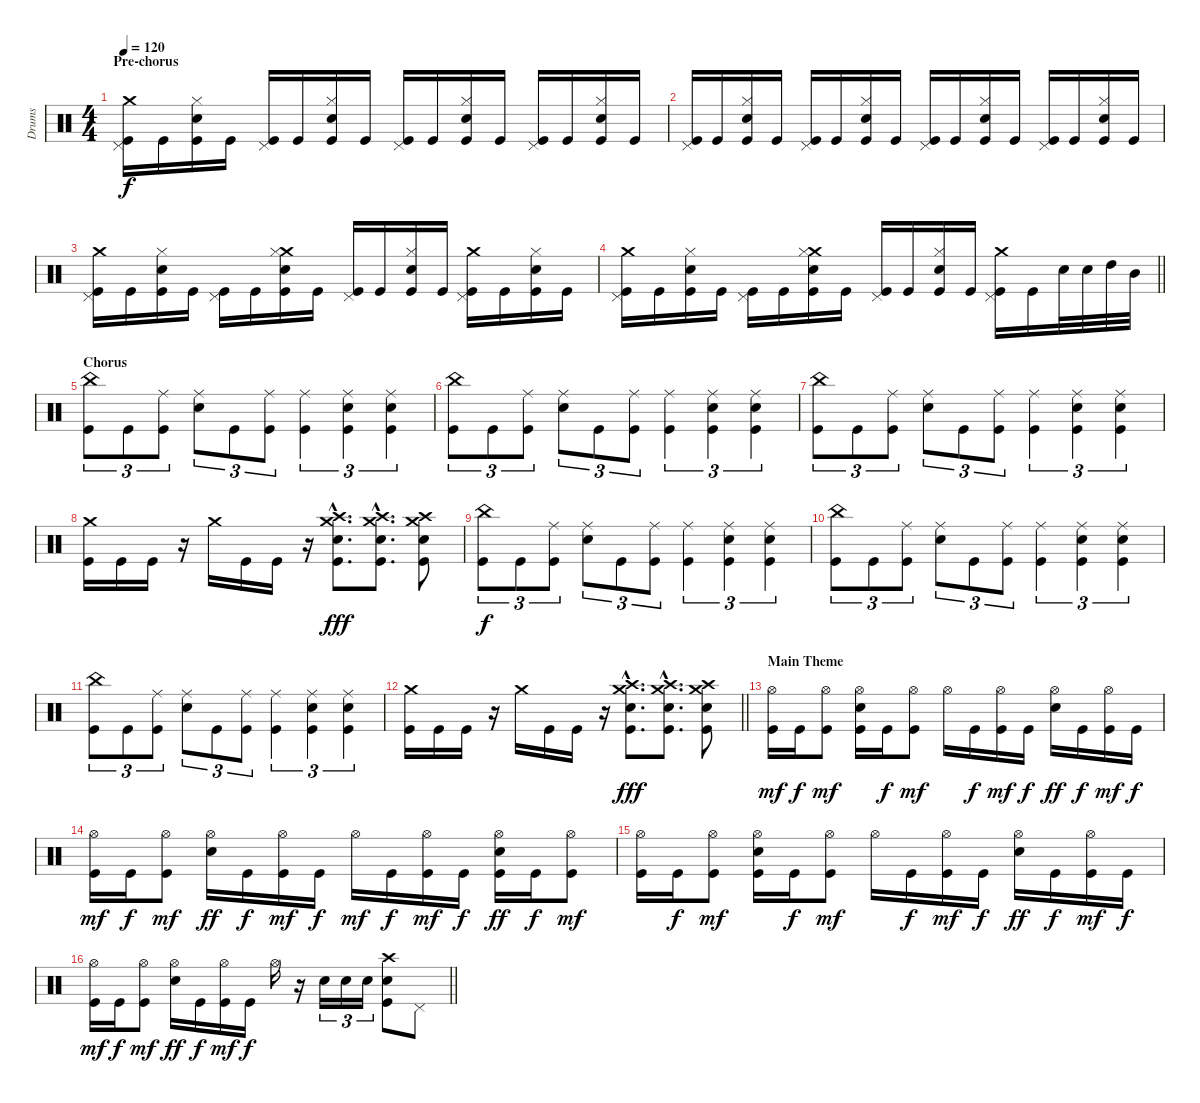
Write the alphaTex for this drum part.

\track ("Drums" "Drums") {instrument percussion}
\staff {score}
\articulation defaults
\ts (4 4)
\section ("" "Pre-chorus")
\tempo 120
\clef neutral
\ks c
("Crash medium (hit)" "Pedal Hi-Hat (hit)" "Kick (hit)").16{dy f} "Kick (hit)".16 ("Hi-Hat (closed)" "Electric Snare (hit)" "Kick (hit)").16 "Kick (hit)".16 ("Pedal Hi-Hat (hit)" "Kick (hit)").16 "Kick (hit)".16 ("Hi-Hat (closed)" "Electric Snare (hit)" "Kick (hit)").16 "Kick (hit)".16 ("Pedal Hi-Hat (hit)" "Kick (hit)").16 "Kick (hit)".16 ("Hi-Hat (closed)" "Electric Snare (hit)" "Kick (hit)").16 "Kick (hit)".16 ("Pedal Hi-Hat (hit)" "Kick (hit)").16 "Kick (hit)".16 ("Hi-Hat (closed)" "Electric Snare (hit)" "Kick (hit)").16 "Kick (hit)".16 |
("Pedal Hi-Hat (hit)" "Kick (hit)").16 "Kick (hit)".16 ("Hi-Hat (closed)" "Electric Snare (hit)" "Kick (hit)").16 "Kick (hit)".16 ("Pedal Hi-Hat (hit)" "Kick (hit)").16 "Kick (hit)".16 ("Hi-Hat (closed)" "Electric Snare (hit)" "Kick (hit)").16 "Kick (hit)".16 ("Pedal Hi-Hat (hit)" "Kick (hit)").16 "Kick (hit)".16 ("Hi-Hat (closed)" "Electric Snare (hit)" "Kick (hit)").16 "Kick (hit)".16 ("Pedal Hi-Hat (hit)" "Kick (hit)").16 "Kick (hit)".16 ("Hi-Hat (closed)" "Electric Snare (hit)" "Kick (hit)").16 "Kick (hit)".16 |
("Crash medium (hit)" "Pedal Hi-Hat (hit)" "Kick (hit)").16 "Kick (hit)".16 ("Hi-Hat (closed)" "Electric Snare (hit)" "Kick (hit)").16 "Kick (hit)".16 ("Pedal Hi-Hat (hit)" "Kick (hit)").16 "Kick (hit)".16 ("Crash medium (hit)" "Hi-Hat (closed)" "Electric Snare (hit)" "Kick (hit)").16 "Kick (hit)".16 ("Pedal Hi-Hat (hit)" "Kick (hit)").16 "Kick (hit)".16 ("Hi-Hat (closed)" "Electric Snare (hit)" "Kick (hit)").16 "Kick (hit)".16 ("Crash medium (hit)" "Pedal Hi-Hat (hit)" "Kick (hit)").16 "Kick (hit)".16 ("Hi-Hat (closed)" "Electric Snare (hit)" "Kick (hit)").16 "Kick (hit)".16 |
\barLineRight lightlight
("Crash medium (hit)" "Pedal Hi-Hat (hit)" "Kick (hit)").16 "Kick (hit)".16 ("Hi-Hat (closed)" "Electric Snare (hit)" "Kick (hit)").16 "Kick (hit)".16 ("Pedal Hi-Hat (hit)" "Kick (hit)").16 "Kick (hit)".16 ("Crash medium (hit)" "Hi-Hat (closed)" "Electric Snare (hit)" "Kick (hit)").16 "Kick (hit)".16 ("Pedal Hi-Hat (hit)" "Kick (hit)").16 "Kick (hit)".16 ("Hi-Hat (closed)" "Electric Snare (hit)" "Kick (hit)").16 "Kick (hit)".16 ("Crash medium (hit)" "Pedal Hi-Hat (hit)" "Kick (hit)").16 "Kick (hit)".16 "Electric Snare (hit)".32 "Electric Snare (hit)".32 "High Tom (hit)".32 "Mid Tom (hit)".32 |
\section ("" "Chorus")
("China (hit)" "Kick (hit)").8{tu (3 2)} "Kick (hit)".8{tu (3 2)} ("Ride (middle)" "Kick (hit)").8{tu (3 2)} ("Ride (middle)" "Electric Snare (hit)").8{tu (3 2)} "Kick (hit)".8{tu (3 2)} ("Ride (middle)" "Kick (hit)").8{tu (3 2)} ("Ride (middle)" "Kick (hit)").4{tu (3 2)} ("Ride (middle)" "Electric Snare (hit)" "Kick (hit)").4{tu (3 2)} ("Ride (middle)" "Electric Snare (hit)" "Kick (hit)").4{tu (3 2)} |
("China (hit)" "Kick (hit)").8{tu (3 2)} "Kick (hit)".8{tu (3 2)} ("Ride (middle)" "Kick (hit)").8{tu (3 2)} ("Ride (middle)" "Electric Snare (hit)").8{tu (3 2)} "Kick (hit)".8{tu (3 2)} ("Ride (middle)" "Kick (hit)").8{tu (3 2)} ("Ride (middle)" "Kick (hit)").4{tu (3 2)} ("Ride (middle)" "Electric Snare (hit)" "Kick (hit)").4{tu (3 2)} ("Ride (middle)" "Electric Snare (hit)" "Kick (hit)").4{tu (3 2)} |
("China (hit)" "Kick (hit)").8{tu (3 2)} "Kick (hit)".8{tu (3 2)} ("Ride (middle)" "Kick (hit)").8{tu (3 2)} ("Ride (middle)" "Electric Snare (hit)").8{tu (3 2)} "Kick (hit)".8{tu (3 2)} ("Ride (middle)" "Kick (hit)").8{tu (3 2)} ("Ride (middle)" "Kick (hit)").4{tu (3 2)} ("Ride (middle)" "Electric Snare (hit)" "Kick (hit)").4{tu (3 2)} ("Ride (middle)" "Electric Snare (hit)" "Kick (hit)").4{tu (3 2)} |
("Crash medium (hit)" "Kick (hit)").16 "Kick (hit)".16 "Kick (hit)".16 r.16 "Crash medium (hit)".16 "Kick (hit)".16 "Kick (hit)".16 r.16 ("Crash high (hit)"{hac} "Crash medium (hit)"{hac} "Electric Snare (hit)"{hac} "Kick (hit)"{hac}).8{d dy fff} ("Crash high (hit)"{hac} "Crash medium (hit)"{hac} "Electric Snare (hit)"{hac} "Kick (hit)"{hac}).8{d} ("Crash high (hit)" "Crash medium (hit)" "Electric Snare (hit)" "Kick (hit)").8 |
("China (hit)" "Kick (hit)").8{tu (3 2) dy f} "Kick (hit)".8{tu (3 2)} ("Ride (middle)" "Kick (hit)").8{tu (3 2)} ("Ride (middle)" "Electric Snare (hit)").8{tu (3 2)} "Kick (hit)".8{tu (3 2)} ("Ride (middle)" "Kick (hit)").8{tu (3 2)} ("Ride (middle)" "Kick (hit)").4{tu (3 2)} ("Ride (middle)" "Electric Snare (hit)" "Kick (hit)").4{tu (3 2)} ("Ride (middle)" "Electric Snare (hit)" "Kick (hit)").4{tu (3 2)} |
("China (hit)" "Kick (hit)").8{tu (3 2)} "Kick (hit)".8{tu (3 2)} ("Ride (middle)" "Kick (hit)").8{tu (3 2)} ("Ride (middle)" "Electric Snare (hit)").8{tu (3 2)} "Kick (hit)".8{tu (3 2)} ("Ride (middle)" "Kick (hit)").8{tu (3 2)} ("Ride (middle)" "Kick (hit)").4{tu (3 2)} ("Ride (middle)" "Electric Snare (hit)" "Kick (hit)").4{tu (3 2)} ("Ride (middle)" "Electric Snare (hit)" "Kick (hit)").4{tu (3 2)} |
("China (hit)" "Kick (hit)").8{tu (3 2)} "Kick (hit)".8{tu (3 2)} ("Ride (middle)" "Kick (hit)").8{tu (3 2)} ("Ride (middle)" "Electric Snare (hit)").8{tu (3 2)} "Kick (hit)".8{tu (3 2)} ("Ride (middle)" "Kick (hit)").8{tu (3 2)} ("Ride (middle)" "Kick (hit)").4{tu (3 2)} ("Ride (middle)" "Electric Snare (hit)" "Kick (hit)").4{tu (3 2)} ("Ride (middle)" "Electric Snare (hit)" "Kick (hit)").4{tu (3 2)} |
\barLineRight lightlight
("Crash medium (hit)" "Kick (hit)").16 "Kick (hit)".16 "Kick (hit)".16 r.16 "Crash medium (hit)".16 "Kick (hit)".16 "Kick (hit)".16 r.16 ("Crash high (hit)"{hac} "Crash medium (hit)"{hac} "Electric Snare (hit)"{hac} "Kick (hit)"{hac}).8{d dy fff} ("Crash high (hit)"{hac} "Crash medium (hit)"{hac} "Electric Snare (hit)"{hac} "Kick (hit)"{hac}).8{d} ("Crash high (hit)" "Crash medium (hit)" "Electric Snare (hit)" "Kick (hit)").8 |
\section ("" "Main Theme")
("Hi-Hat (open)" "Kick (hit)").16{dy mf} "Kick (hit)".16{dy f} ("Hi-Hat (open)" "Kick (hit)").8{dy mf} ("Hi-Hat (open)" "Electric Snare (hit)" "Kick (hit)").16 "Kick (hit)".16{dy f} ("Hi-Hat (open)" "Kick (hit)").8{dy mf} "Hi-Hat (open)".16 "Kick (hit)".16{dy f} ("Hi-Hat (open)" "Kick (hit)").16{dy mf} "Kick (hit)".16{dy f} ("Hi-Hat (open)" "Electric Snare (hit)").16{dy ff} "Kick (hit)".16{dy f} ("Hi-Hat (open)" "Kick (hit)").16{dy mf} "Kick (hit)".16{dy f} |
("Hi-Hat (open)" "Kick (hit)").16{dy mf} "Kick (hit)".16{dy f} ("Hi-Hat (open)" "Kick (hit)").8{dy mf} ("Hi-Hat (open)" "Electric Snare (hit)").16{dy ff} "Kick (hit)".16{dy f} ("Hi-Hat (open)" "Kick (hit)").16{dy mf} "Kick (hit)".16{dy f} "Hi-Hat (open)".16{dy mf} "Kick (hit)".16{dy f} ("Hi-Hat (open)" "Kick (hit)").16{dy mf} "Kick (hit)".16{dy f} ("Hi-Hat (open)" "Electric Snare (hit)" "Kick (hit)").16{dy ff} "Kick (hit)".16{dy f} ("Hi-Hat (open)" "Kick (hit)").8{dy mf} |
("Hi-Hat (open)" "Kick (hit)").16 "Kick (hit)".16{dy f} ("Hi-Hat (open)" "Kick (hit)").8{dy mf} ("Hi-Hat (open)" "Electric Snare (hit)" "Kick (hit)").16 "Kick (hit)".16{dy f} ("Hi-Hat (open)" "Kick (hit)").8{dy mf} "Hi-Hat (open)".16 "Kick (hit)".16{dy f} ("Hi-Hat (open)" "Kick (hit)").16{dy mf} "Kick (hit)".16{dy f} ("Hi-Hat (open)" "Electric Snare (hit)").16{dy ff} "Kick (hit)".16{dy f} ("Hi-Hat (open)" "Kick (hit)").16{dy mf} "Kick (hit)".16{dy f} |
\barLineRight lightlight
("Hi-Hat (open)" "Kick (hit)").16{dy mf} "Kick (hit)".16{dy f} ("Hi-Hat (open)" "Kick (hit)").8{dy mf} ("Hi-Hat (open)" "Electric Snare (hit)").16{dy ff} "Kick (hit)".16{dy f} ("Hi-Hat (open)" "Kick (hit)").16{dy mf} "Kick (hit)".16{dy f} "Hi-Hat (open)".16 r.16 "Electric Snare (hit)".16{tu (3 2)} "Electric Snare (hit)".16{tu (3 2)} "Electric Snare (hit)".16{tu (3 2)} ("Crash high (hit)" "Electric Snare (hit)" "Kick (hit)").8 "Pedal Hi-Hat (hit)".8
